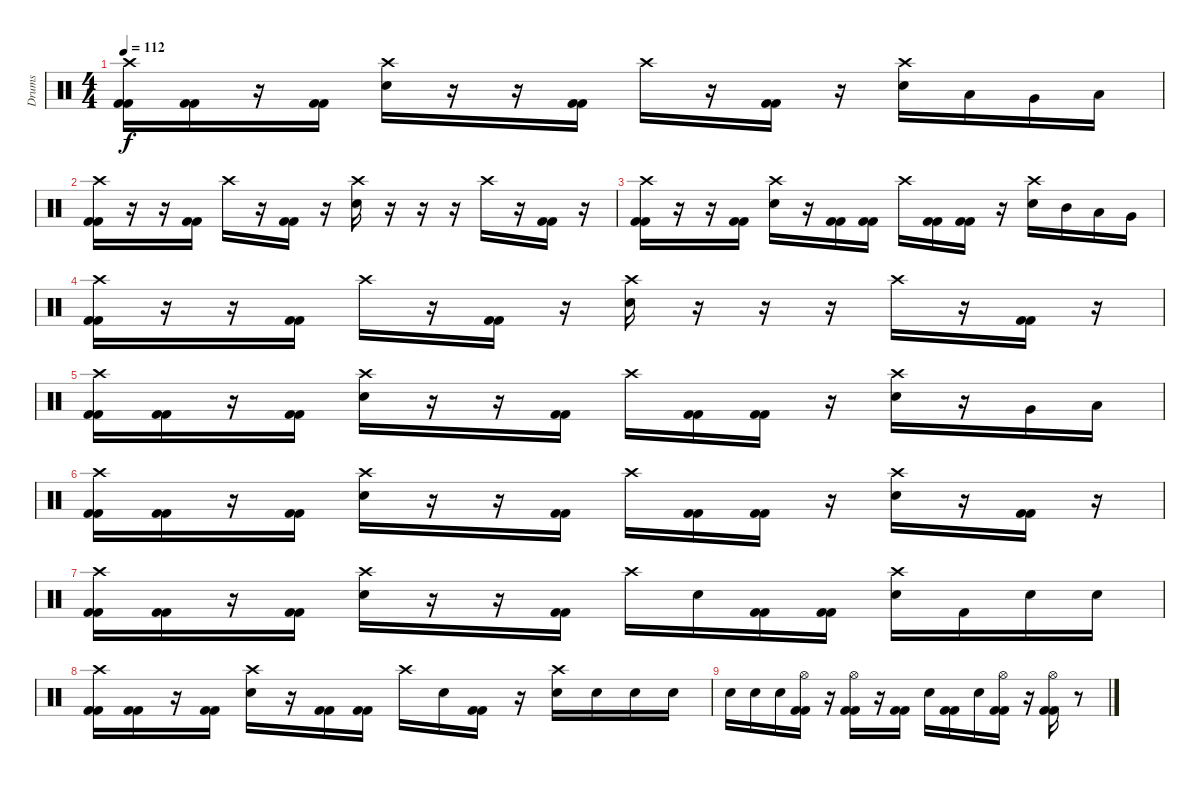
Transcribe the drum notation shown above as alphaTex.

\track ("Drums" "Drums") {instrument percussion}
\staff {score}
\articulation defaults
\ts (4 4)
\tempo 112
\clef neutral
\ks c
("Crash high (hit)" "Kick (hit) 2" "Kick (hit) 2").16{dy f} ("Kick (hit) 2" "Kick (hit) 2").16 r.16 ("Kick (hit) 2" "Kick (hit) 2").16 ("Crash high (hit)" "Electric Snare (hit)").16 r.16 r.16 ("Kick (hit) 2" "Kick (hit) 2").16 "Crash high (hit)".16 r.16 ("Kick (hit) 2" "Kick (hit) 2").16 r.16 ("Crash high (hit)" "Electric Snare (hit)").16 "Low Tom (hit)".16 "Very Low Tom (hit)".16 "Low Floor Tom (hit)".16 |
("Crash high (hit)" "Kick (hit) 2" "Kick (hit) 2").16 r.16 r.16 ("Kick (hit) 2" "Kick (hit) 2").16 "Crash high (hit)".16 r.16 ("Kick (hit) 2" "Kick (hit) 2").16 r.16 ("Crash high (hit)" "Electric Snare (hit)").16 r.16 r.16 r.16 "Crash high (hit)".16 r.16 ("Kick (hit) 2" "Kick (hit) 2").16 r.16 |
("Crash high (hit)" "Kick (hit) 2" "Kick (hit) 2").16 r.16 r.16 ("Kick (hit) 2" "Kick (hit) 2").16 ("Crash high (hit)" "Electric Snare (hit)").16 r.16 ("Kick (hit) 2" "Kick (hit) 2").16 ("Kick (hit) 2" "Kick (hit) 2").16 "Crash high (hit)".16 ("Kick (hit) 2" "Kick (hit) 2").16 ("Kick (hit) 2" "Kick (hit) 2").16 r.16 ("Crash high (hit)" "Electric Snare (hit)").16 "Mid Tom (hit)".16 "Low Tom (hit)".16 "Very Low Tom (hit)".16 |
("Crash high (hit)" "Kick (hit) 2" "Kick (hit) 2").16 r.16 r.16 ("Kick (hit) 2" "Kick (hit) 2").16 "Crash high (hit)".16 r.16 ("Kick (hit) 2" "Kick (hit) 2").16 r.16 ("Crash high (hit)" "Electric Snare (hit)").16 r.16 r.16 r.16 "Crash high (hit)".16 r.16 ("Kick (hit) 2" "Kick (hit) 2").16 r.16 |
("Crash high (hit)" "Kick (hit) 2" "Kick (hit) 2").16 ("Kick (hit) 2" "Kick (hit) 2").16 r.16 ("Kick (hit) 2" "Kick (hit) 2").16 ("Crash high (hit)" "Electric Snare (hit)").16 r.16 r.16 ("Kick (hit) 2" "Kick (hit) 2").16 "Crash high (hit)".16 ("Kick (hit) 2" "Kick (hit) 2").16 ("Kick (hit) 2" "Kick (hit) 2").16 r.16 ("Crash high (hit)" "Electric Snare (hit)").16 r.16 "Very Low Tom (hit)".16 "Low Floor Tom (hit)".16 |
("Crash high (hit)" "Kick (hit) 2" "Kick (hit) 2").16 ("Kick (hit) 2" "Kick (hit) 2").16 r.16 ("Kick (hit) 2" "Kick (hit) 2").16 ("Crash high (hit)" "Electric Snare (hit)").16 r.16 r.16 ("Kick (hit) 2" "Kick (hit) 2").16 "Crash high (hit)".16 ("Kick (hit) 2" "Kick (hit) 2").16 ("Kick (hit) 2" "Kick (hit) 2").16 r.16 ("Crash high (hit)" "Electric Snare (hit)").16 r.16 ("Kick (hit) 2" "Kick (hit) 2").16 r.16 |
("Crash high (hit)" "Kick (hit) 2" "Kick (hit) 2").16 ("Kick (hit) 2" "Kick (hit) 2").16 r.16 ("Kick (hit) 2" "Kick (hit) 2").16 ("Crash high (hit)" "Electric Snare (hit)").16 r.16 r.16 ("Kick (hit) 2" "Kick (hit) 2").16 "Crash high (hit)".16 "Electric Snare (hit)".16 ("Kick (hit) 2" "Kick (hit) 2").16 ("Kick (hit) 2" "Kick (hit) 2").16 ("Crash high (hit)" "Electric Snare (hit)").16 "Kick (hit) 2".16 "Electric Snare (hit)".16 "Electric Snare (hit)".16 |
("Crash high (hit)" "Kick (hit) 2" "Kick (hit) 2").16 ("Kick (hit) 2" "Kick (hit) 2").16 r.16 ("Kick (hit) 2" "Kick (hit) 2").16 ("Crash high (hit)" "Electric Snare (hit)").16 r.16 ("Kick (hit) 2" "Kick (hit) 2").16 ("Kick (hit) 2" "Kick (hit) 2").16 "Crash high (hit)".16 "Electric Snare (hit)".16 ("Kick (hit) 2" "Kick (hit) 2").16 r.16 ("Crash high (hit)" "Electric Snare (hit)").16 "Electric Snare (hit)".16 "Electric Snare (hit)".16 "Electric Snare (hit)".16 |
"Electric Snare (hit)".16 "Electric Snare (hit)".16 "Electric Snare (hit)".16 ("Hi-Hat (open)" "Kick (hit) 2" "Kick (hit) 2").16 r.16 ("Hi-Hat (open)" "Kick (hit) 2" "Kick (hit) 2").16 r.16 ("Kick (hit) 2" "Kick (hit) 2").16 "Electric Snare (hit)".16 ("Kick (hit) 2" "Kick (hit) 2").16 "Electric Snare (hit)".16 ("Hi-Hat (open)" "Kick (hit) 2" "Kick (hit) 2").16 r.16 ("Hi-Hat (open)" "Kick (hit) 2" "Kick (hit) 2").16 r.8
